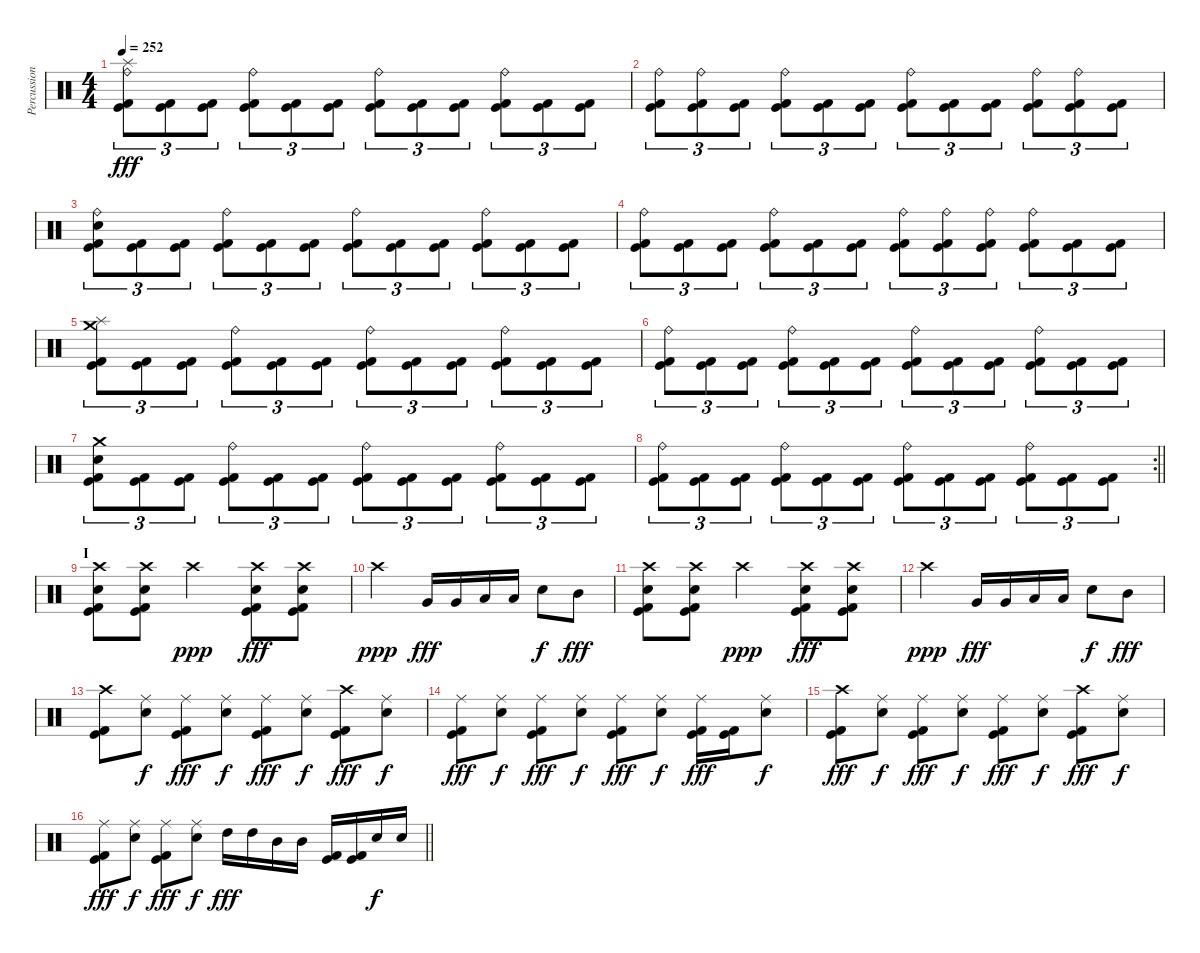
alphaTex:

\track ("Percussion" "Percussion") {mute instrument percussion}
\staff {score}
\articulation defaults
\ts (4 4)
\tempo 252
\clef neutral
\ks c
("Splash (hit)" "Ride (bell)" "Kick (hit)" "Kick (hit) 2").8{tu (3 2) dy fff} ("Kick (hit)" "Kick (hit) 2").8{tu (3 2)} ("Kick (hit)" "Kick (hit) 2").8{tu (3 2)} ("Ride (bell)" "Kick (hit)" "Kick (hit) 2").8{tu (3 2)} ("Kick (hit)" "Kick (hit) 2").8{tu (3 2)} ("Kick (hit)" "Kick (hit) 2").8{tu (3 2)} ("Ride (bell)" "Kick (hit)" "Kick (hit) 2").8{tu (3 2)} ("Kick (hit)" "Kick (hit) 2").8{tu (3 2)} ("Kick (hit)" "Kick (hit) 2").8{tu (3 2)} ("Ride (bell)" "Kick (hit)" "Kick (hit) 2").8{tu (3 2)} ("Kick (hit)" "Kick (hit) 2").8{tu (3 2)} ("Kick (hit)" "Kick (hit) 2").8{tu (3 2)} |
("Ride (bell)" "Kick (hit)" "Kick (hit) 2").8{tu (3 2)} ("Ride (bell)" "Kick (hit)" "Kick (hit) 2").8{tu (3 2)} ("Kick (hit)" "Kick (hit) 2").8{tu (3 2)} ("Ride (bell)" "Kick (hit)" "Kick (hit) 2").8{tu (3 2)} ("Kick (hit)" "Kick (hit) 2").8{tu (3 2)} ("Kick (hit)" "Kick (hit) 2").8{tu (3 2)} ("Ride (bell)" "Kick (hit)" "Kick (hit) 2").8{tu (3 2)} ("Kick (hit)" "Kick (hit) 2").8{tu (3 2)} ("Kick (hit)" "Kick (hit) 2").8{tu (3 2)} ("Ride (bell)" "Kick (hit)" "Kick (hit) 2").8{tu (3 2)} ("Ride (bell)" "Kick (hit)" "Kick (hit) 2").8{tu (3 2)} ("Kick (hit)" "Kick (hit) 2").8{tu (3 2)} |
("Ride (bell)" "Electric Snare (hit)" "Kick (hit)" "Kick (hit) 2").8{tu (3 2)} ("Kick (hit)" "Kick (hit) 2").8{tu (3 2)} ("Kick (hit)" "Kick (hit) 2").8{tu (3 2)} ("Ride (bell)" "Kick (hit)" "Kick (hit) 2").8{tu (3 2)} ("Kick (hit)" "Kick (hit) 2").8{tu (3 2)} ("Kick (hit)" "Kick (hit) 2").8{tu (3 2)} ("Ride (bell)" "Kick (hit)" "Kick (hit) 2").8{tu (3 2)} ("Kick (hit)" "Kick (hit) 2").8{tu (3 2)} ("Kick (hit)" "Kick (hit) 2").8{tu (3 2)} ("Ride (bell)" "Kick (hit)" "Kick (hit) 2").8{tu (3 2)} ("Kick (hit)" "Kick (hit) 2").8{tu (3 2)} ("Kick (hit)" "Kick (hit) 2").8{tu (3 2)} |
("Ride (bell)" "Kick (hit)" "Kick (hit) 2").8{tu (3 2)} ("Kick (hit)" "Kick (hit) 2").8{tu (3 2)} ("Kick (hit)" "Kick (hit) 2").8{tu (3 2)} ("Ride (bell)" "Kick (hit)" "Kick (hit) 2").8{tu (3 2)} ("Kick (hit)" "Kick (hit) 2").8{tu (3 2)} ("Kick (hit)" "Kick (hit) 2").8{tu (3 2)} ("Ride (bell)" "Kick (hit)" "Kick (hit) 2").8{tu (3 2)} ("Ride (bell)" "Kick (hit)" "Kick (hit) 2").8{tu (3 2)} ("Ride (bell)" "Kick (hit)" "Kick (hit) 2").8{tu (3 2)} ("Ride (bell)" "Kick (hit)" "Kick (hit) 2").8{tu (3 2)} ("Kick (hit)" "Kick (hit) 2").8{tu (3 2)} ("Kick (hit)" "Kick (hit) 2").8{tu (3 2)} |
("Crash medium (hit)" "Splash (hit)" "Kick (hit)" "Kick (hit) 2").8{tu (3 2)} ("Kick (hit)" "Kick (hit) 2").8{tu (3 2)} ("Kick (hit)" "Kick (hit) 2").8{tu (3 2)} ("Ride (bell)" "Kick (hit)" "Kick (hit) 2").8{tu (3 2)} ("Kick (hit)" "Kick (hit) 2").8{tu (3 2)} ("Kick (hit)" "Kick (hit) 2").8{tu (3 2)} ("Ride (bell)" "Kick (hit)" "Kick (hit) 2").8{tu (3 2)} ("Kick (hit)" "Kick (hit) 2").8{tu (3 2)} ("Kick (hit)" "Kick (hit) 2").8{tu (3 2)} ("Ride (bell)" "Kick (hit)" "Kick (hit) 2").8{tu (3 2)} ("Kick (hit)" "Kick (hit) 2").8{tu (3 2)} ("Kick (hit)" "Kick (hit) 2").8{tu (3 2)} |
("Ride (bell)" "Kick (hit)" "Kick (hit) 2").8{tu (3 2)} ("Kick (hit)" "Kick (hit) 2").8{tu (3 2)} ("Kick (hit)" "Kick (hit) 2").8{tu (3 2)} ("Ride (bell)" "Kick (hit)" "Kick (hit) 2").8{tu (3 2)} ("Kick (hit)" "Kick (hit) 2").8{tu (3 2)} ("Kick (hit)" "Kick (hit) 2").8{tu (3 2)} ("Ride (bell)" "Kick (hit)" "Kick (hit) 2").8{tu (3 2)} ("Kick (hit)" "Kick (hit) 2").8{tu (3 2)} ("Kick (hit)" "Kick (hit) 2").8{tu (3 2)} ("Ride (bell)" "Kick (hit)" "Kick (hit) 2").8{tu (3 2)} ("Kick (hit)" "Kick (hit) 2").8{tu (3 2)} ("Kick (hit)" "Kick (hit) 2").8{tu (3 2)} |
("Crash medium (hit)" "Electric Snare (hit)" "Kick (hit)" "Kick (hit) 2").8{tu (3 2)} ("Kick (hit)" "Kick (hit) 2").8{tu (3 2)} ("Kick (hit)" "Kick (hit) 2").8{tu (3 2)} ("Ride (bell)" "Kick (hit)" "Kick (hit) 2").8{tu (3 2)} ("Kick (hit)" "Kick (hit) 2").8{tu (3 2)} ("Kick (hit)" "Kick (hit) 2").8{tu (3 2)} ("Ride (bell)" "Kick (hit)" "Kick (hit) 2").8{tu (3 2)} ("Kick (hit)" "Kick (hit) 2").8{tu (3 2)} ("Kick (hit)" "Kick (hit) 2").8{tu (3 2)} ("Ride (bell)" "Kick (hit)" "Kick (hit) 2").8{tu (3 2)} ("Kick (hit)" "Kick (hit) 2").8{tu (3 2)} ("Kick (hit)" "Kick (hit) 2").8{tu (3 2)} |
\rc 2
\barLineRight lightlight
("Ride (bell)" "Kick (hit)" "Kick (hit) 2").8{tu (3 2)} ("Kick (hit)" "Kick (hit) 2").8{tu (3 2)} ("Kick (hit)" "Kick (hit) 2").8{tu (3 2)} ("Ride (bell)" "Kick (hit)" "Kick (hit) 2").8{tu (3 2)} ("Kick (hit)" "Kick (hit) 2").8{tu (3 2)} ("Kick (hit)" "Kick (hit) 2").8{tu (3 2)} ("Ride (bell)" "Kick (hit)" "Kick (hit) 2").8{tu (3 2)} ("Kick (hit)" "Kick (hit) 2").8{tu (3 2)} ("Kick (hit)" "Kick (hit) 2").8{tu (3 2)} ("Ride (bell)" "Kick (hit)" "Kick (hit) 2").8{tu (3 2)} ("Kick (hit)" "Kick (hit) 2").8{tu (3 2)} ("Kick (hit)" "Kick (hit) 2").8{tu (3 2)} |
\section ("" "I")
("Crash high (hit)" "Electric Snare (hit)" "Kick (hit)" "Kick (hit) 2").8 ("Crash high (hit)" "Electric Snare (hit)" "Kick (hit)" "Kick (hit) 2").8 "Crash high (hit)".2{dy ppp} ("Crash high (hit)" "Electric Snare (hit)" "Kick (hit)" "Kick (hit) 2").8{dy fff} ("Crash high (hit)" "Electric Snare (hit)" "Kick (hit)" "Kick (hit) 2").8 |
"Crash high (hit)".2{dy ppp} "Very Low Tom (hit)".16{dy fff} "Very Low Tom (hit)".16 "Low Tom (hit)".16 "Low Tom (hit)".16 "Electric Snare (hit)".8{dy f} "Mid Tom (hit)".8{dy fff} |
("Crash high (hit)" "Electric Snare (hit)" "Kick (hit)" "Kick (hit) 2").8 ("Crash high (hit)" "Electric Snare (hit)" "Kick (hit)" "Kick (hit) 2").8 "Crash high (hit)".2{dy ppp} ("Crash high (hit)" "Electric Snare (hit)" "Kick (hit)" "Kick (hit) 2").8{dy fff} ("Crash high (hit)" "Electric Snare (hit)" "Kick (hit)" "Kick (hit) 2").8 |
"Crash high (hit)".2{dy ppp} "Very Low Tom (hit)".16{dy fff} "Very Low Tom (hit)".16 "Low Tom (hit)".16 "Low Tom (hit)".16 "Electric Snare (hit)".8{dy f} "Mid Tom (hit)".8{dy fff} |
("Crash high (hit)" "Kick (hit)" "Kick (hit) 2").8 ("Ride (middle)" "Electric Snare (hit)").8{dy f} ("Ride (middle)" "Kick (hit)" "Kick (hit) 2").8{dy fff} ("Ride (middle)" "Electric Snare (hit)").8{dy f} ("Ride (middle)" "Kick (hit)" "Kick (hit) 2").8{dy fff} ("Ride (middle)" "Electric Snare (hit)").8{dy f} ("Crash high (hit)" "Kick (hit)" "Kick (hit) 2").8{dy fff} ("Ride (middle)" "Electric Snare (hit)").8{dy f} |
("Ride (middle)" "Kick (hit)" "Kick (hit) 2").8{dy fff} ("Ride (middle)" "Electric Snare (hit)").8{dy f} ("Ride (middle)" "Kick (hit)" "Kick (hit) 2").8{dy fff} ("Ride (middle)" "Electric Snare (hit)").8{dy f} ("Ride (middle)" "Kick (hit)" "Kick (hit) 2").8{dy fff} ("Ride (middle)" "Electric Snare (hit)").8{dy f} ("Ride (middle)" "Kick (hit)" "Kick (hit) 2").16{dy fff} ("Kick (hit)" "Kick (hit) 2").16 ("Ride (middle)" "Electric Snare (hit)").8{dy f} |
("Crash high (hit)" "Kick (hit)" "Kick (hit) 2").8{dy fff} ("Ride (middle)" "Electric Snare (hit)").8{dy f} ("Ride (middle)" "Kick (hit)" "Kick (hit) 2").8{dy fff} ("Ride (middle)" "Electric Snare (hit)").8{dy f} ("Ride (middle)" "Kick (hit)" "Kick (hit) 2").8{dy fff} ("Ride (middle)" "Electric Snare (hit)").8{dy f} ("Crash high (hit)" "Kick (hit)" "Kick (hit) 2").8{dy fff} ("Ride (middle)" "Electric Snare (hit)").8{dy f} |
\barLineRight lightlight
("Ride (middle)" "Kick (hit)" "Kick (hit) 2").8{dy fff} ("Ride (middle)" "Electric Snare (hit)").8{dy f} ("Ride (middle)" "Kick (hit)" "Kick (hit) 2").8{dy fff} ("Ride (middle)" "Electric Snare (hit)").8{dy f} "High Tom (hit)".16{dy fff} "High Tom (hit)".16 "Mid Tom (hit)".16 "Mid Tom (hit)".16 ("Kick (hit)" "Kick (hit) 2").16 ("Kick (hit)" "Kick (hit) 2").16 "Electric Snare (hit)".16{dy f} "Electric Snare (hit)".16
